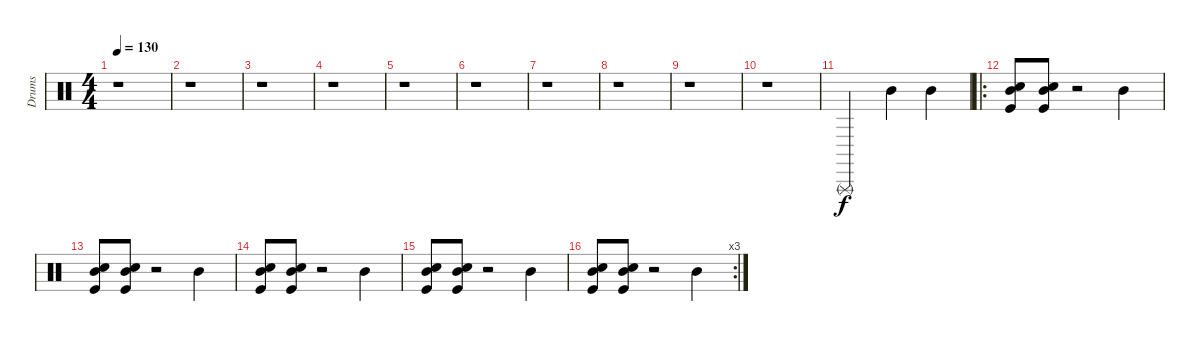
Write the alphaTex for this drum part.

\track ("Drums" "Drums") {instrument percussion}
\staff {score}
\articulation defaults
\ts (4 4)
\tempo 130
\clef neutral
\ks c
r.1{dy f} |
r.1 |
r.1 |
r.1 |
r.1 |
r.1 |
r.1 |
r.1 |
r.1 |
r.1 |
"Triangle (rnute)".2 "Mid Tom (hit)".4 "Mid Tom (hit)".4 |
\ro
("Snare (hit) 2" "Mid Tom (hit)" "Kick (hit)").8 ("Snare (hit) 2" "Mid Tom (hit)" "Kick (hit)").8 r.2 "Mid Tom (hit)".4 |
("Snare (hit) 2" "Mid Tom (hit)" "Kick (hit)").8 ("Snare (hit) 2" "Mid Tom (hit)" "Kick (hit)").8 r.2 "Mid Tom (hit)".4 |
("Snare (hit) 2" "Mid Tom (hit)" "Kick (hit)").8 ("Snare (hit) 2" "Mid Tom (hit)" "Kick (hit)").8 r.2 "Mid Tom (hit)".4 |
("Snare (hit) 2" "Mid Tom (hit)" "Kick (hit)").8 ("Snare (hit) 2" "Mid Tom (hit)" "Kick (hit)").8 r.2 "Mid Tom (hit)".4 |
\rc 3
("Snare (hit) 2" "Mid Tom (hit)" "Kick (hit)").8 ("Snare (hit) 2" "Mid Tom (hit)" "Kick (hit)").8 r.2 "Mid Tom (hit)".4
